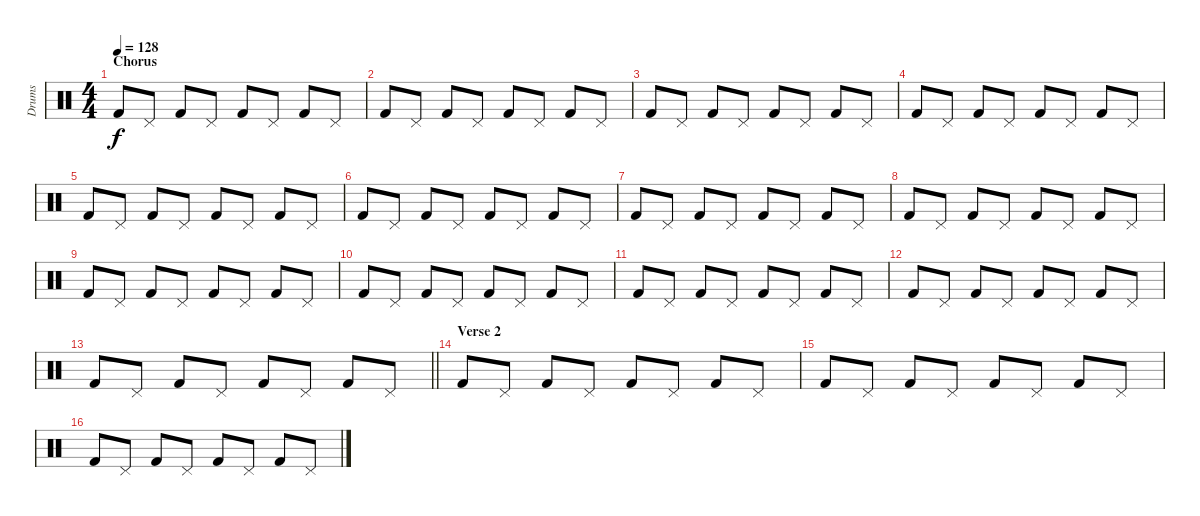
\track ("Drums" "Drums") {instrument percussion}
\staff {score}
\articulation defaults
\ts (4 4)
\section ("" "Chorus")
\tempo 128
\clef neutral
\ks c "Kick (hit) 2".8{dy f} "Pedal Hi-Hat (hit)".8 "Kick (hit) 2".8 "Pedal Hi-Hat (hit)".8 "Kick (hit) 2".8 "Pedal Hi-Hat (hit)".8 "Kick (hit) 2".8 "Pedal Hi-Hat (hit)".8
|
"Kick (hit) 2".8 "Pedal Hi-Hat (hit)".8 "Kick (hit) 2".8 "Pedal Hi-Hat (hit)".8 "Kick (hit) 2".8 "Pedal Hi-Hat (hit)".8 "Kick (hit) 2".8 "Pedal Hi-Hat (hit)".8 |
"Kick (hit) 2".8 "Pedal Hi-Hat (hit)".8 "Kick (hit) 2".8 "Pedal Hi-Hat (hit)".8 "Kick (hit) 2".8 "Pedal Hi-Hat (hit)".8 "Kick (hit) 2".8 "Pedal Hi-Hat (hit)".8 |
"Kick (hit) 2".8 "Pedal Hi-Hat (hit)".8 "Kick (hit) 2".8 "Pedal Hi-Hat (hit)".8 "Kick (hit) 2".8 "Pedal Hi-Hat (hit)".8 "Kick (hit) 2".8 "Pedal Hi-Hat (hit)".8 |
"Kick (hit) 2".8 "Pedal Hi-Hat (hit)".8 "Kick (hit) 2".8 "Pedal Hi-Hat (hit)".8 "Kick (hit) 2".8 "Pedal Hi-Hat (hit)".8 "Kick (hit) 2".8 "Pedal Hi-Hat (hit)".8 |
"Kick (hit) 2".8 "Pedal Hi-Hat (hit)".8 "Kick (hit) 2".8 "Pedal Hi-Hat (hit)".8 "Kick (hit) 2".8 "Pedal Hi-Hat (hit)".8 "Kick (hit) 2".8 "Pedal Hi-Hat (hit)".8 |
"Kick (hit) 2".8 "Pedal Hi-Hat (hit)".8 "Kick (hit) 2".8 "Pedal Hi-Hat (hit)".8 "Kick (hit) 2".8 "Pedal Hi-Hat (hit)".8 "Kick (hit) 2".8 "Pedal Hi-Hat (hit)".8 |
"Kick (hit) 2".8 "Pedal Hi-Hat (hit)".8 "Kick (hit) 2".8 "Pedal Hi-Hat (hit)".8 "Kick (hit) 2".8 "Pedal Hi-Hat (hit)".8 "Kick (hit) 2".8 "Pedal Hi-Hat (hit)".8 |
"Kick (hit) 2".8 "Pedal Hi-Hat (hit)".8 "Kick (hit) 2".8 "Pedal Hi-Hat (hit)".8 "Kick (hit) 2".8 "Pedal Hi-Hat (hit)".8 "Kick (hit) 2".8 "Pedal Hi-Hat (hit)".8 |
"Kick (hit) 2".8 "Pedal Hi-Hat (hit)".8 "Kick (hit) 2".8 "Pedal Hi-Hat (hit)".8 "Kick (hit) 2".8 "Pedal Hi-Hat (hit)".8 "Kick (hit) 2".8 "Pedal Hi-Hat (hit)".8 |
"Kick (hit) 2".8 "Pedal Hi-Hat (hit)".8 "Kick (hit) 2".8 "Pedal Hi-Hat (hit)".8 "Kick (hit) 2".8 "Pedal Hi-Hat (hit)".8 "Kick (hit) 2".8 "Pedal Hi-Hat (hit)".8 |
"Kick (hit) 2".8 "Pedal Hi-Hat (hit)".8 "Kick (hit) 2".8 "Pedal Hi-Hat (hit)".8 "Kick (hit) 2".8 "Pedal Hi-Hat (hit)".8 "Kick (hit) 2".8 "Pedal Hi-Hat (hit)".8 |
\barLineRight lightlight "Kick (hit) 2".8 "Pedal Hi-Hat (hit)".8 "Kick (hit) 2".8 "Pedal Hi-Hat (hit)".8 "Kick (hit) 2".8 "Pedal Hi-Hat (hit)".8 "Kick (hit) 2".8 "Pedal Hi-Hat (hit)".8
|
\section ("" "Verse 2")
"Kick (hit) 2".8 "Pedal Hi-Hat (hit)".8 "Kick (hit) 2".8 "Pedal Hi-Hat (hit)".8 "Kick (hit) 2".8 "Pedal Hi-Hat (hit)".8 "Kick (hit) 2".8 "Pedal Hi-Hat (hit)".8 |
"Kick (hit) 2".8 "Pedal Hi-Hat (hit)".8 "Kick (hit) 2".8 "Pedal Hi-Hat (hit)".8 "Kick (hit) 2".8 "Pedal Hi-Hat (hit)".8 "Kick (hit) 2".8 "Pedal Hi-Hat (hit)".8 |
"Kick (hit) 2".8 "Pedal Hi-Hat (hit)".8 "Kick (hit) 2".8 "Pedal Hi-Hat (hit)".8 "Kick (hit) 2".8 "Pedal Hi-Hat (hit)".8 "Kick (hit) 2".8 "Pedal Hi-Hat (hit)".8
